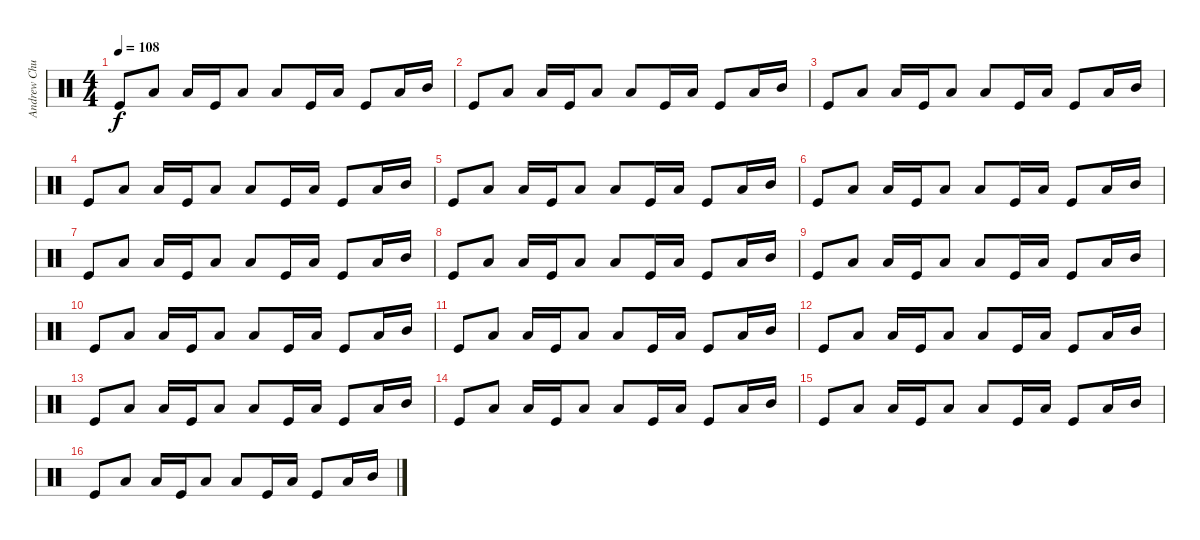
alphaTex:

\track ("Andrew Chudy - Bassdrum" "Andrew Chu") {instrument percussion}
\staff {score}
\articulation defaults
\ts (4 4)
\tempo 108
\clef neutral
\ks c "Kick (hit)".8{dy f} "Low Floor Tom (hit)".8 "Low Floor Tom (hit)".16 "Kick (hit)".16 "Low Floor Tom (hit)".8 "Low Floor Tom (hit)".8 "Kick (hit)".16 "Low Floor Tom (hit)".16 "Kick (hit)".8 "Low Floor Tom (hit)".16 "Mid Tom (hit)".16
|
"Kick (hit)".8 "Low Floor Tom (hit)".8 "Low Floor Tom (hit)".16 "Kick (hit)".16 "Low Floor Tom (hit)".8 "Low Floor Tom (hit)".8 "Kick (hit)".16 "Low Floor Tom (hit)".16 "Kick (hit)".8 "Low Floor Tom (hit)".16 "Mid Tom (hit)".16 |
"Kick (hit)".8 "Low Floor Tom (hit)".8 "Low Floor Tom (hit)".16 "Kick (hit)".16 "Low Floor Tom (hit)".8 "Low Floor Tom (hit)".8 "Kick (hit)".16 "Low Floor Tom (hit)".16 "Kick (hit)".8 "Low Floor Tom (hit)".16 "Mid Tom (hit)".16 |
"Kick (hit)".8 "Low Floor Tom (hit)".8 "Low Floor Tom (hit)".16 "Kick (hit)".16 "Low Floor Tom (hit)".8 "Low Floor Tom (hit)".8 "Kick (hit)".16 "Low Floor Tom (hit)".16 "Kick (hit)".8 "Low Floor Tom (hit)".16 "Mid Tom (hit)".16 |
"Kick (hit)".8 "Low Floor Tom (hit)".8 "Low Floor Tom (hit)".16 "Kick (hit)".16 "Low Floor Tom (hit)".8 "Low Floor Tom (hit)".8 "Kick (hit)".16 "Low Floor Tom (hit)".16 "Kick (hit)".8 "Low Floor Tom (hit)".16 "Mid Tom (hit)".16 |
"Kick (hit)".8 "Low Floor Tom (hit)".8 "Low Floor Tom (hit)".16 "Kick (hit)".16 "Low Floor Tom (hit)".8 "Low Floor Tom (hit)".8 "Kick (hit)".16 "Low Floor Tom (hit)".16 "Kick (hit)".8 "Low Floor Tom (hit)".16 "Mid Tom (hit)".16 |
"Kick (hit)".8 "Low Floor Tom (hit)".8 "Low Floor Tom (hit)".16 "Kick (hit)".16 "Low Floor Tom (hit)".8 "Low Floor Tom (hit)".8 "Kick (hit)".16 "Low Floor Tom (hit)".16 "Kick (hit)".8 "Low Floor Tom (hit)".16 "Mid Tom (hit)".16 |
"Kick (hit)".8 "Low Floor Tom (hit)".8 "Low Floor Tom (hit)".16 "Kick (hit)".16 "Low Floor Tom (hit)".8 "Low Floor Tom (hit)".8 "Kick (hit)".16 "Low Floor Tom (hit)".16 "Kick (hit)".8 "Low Floor Tom (hit)".16 "Mid Tom (hit)".16 |
"Kick (hit)".8 "Low Floor Tom (hit)".8 "Low Floor Tom (hit)".16 "Kick (hit)".16 "Low Floor Tom (hit)".8 "Low Floor Tom (hit)".8 "Kick (hit)".16 "Low Floor Tom (hit)".16 "Kick (hit)".8 "Low Floor Tom (hit)".16 "Mid Tom (hit)".16 |
"Kick (hit)".8 "Low Floor Tom (hit)".8 "Low Floor Tom (hit)".16 "Kick (hit)".16 "Low Floor Tom (hit)".8 "Low Floor Tom (hit)".8 "Kick (hit)".16 "Low Floor Tom (hit)".16 "Kick (hit)".8 "Low Floor Tom (hit)".16 "Mid Tom (hit)".16 |
"Kick (hit)".8 "Low Floor Tom (hit)".8 "Low Floor Tom (hit)".16 "Kick (hit)".16 "Low Floor Tom (hit)".8 "Low Floor Tom (hit)".8 "Kick (hit)".16 "Low Floor Tom (hit)".16 "Kick (hit)".8 "Low Floor Tom (hit)".16 "Mid Tom (hit)".16 |
"Kick (hit)".8 "Low Floor Tom (hit)".8 "Low Floor Tom (hit)".16 "Kick (hit)".16 "Low Floor Tom (hit)".8 "Low Floor Tom (hit)".8 "Kick (hit)".16 "Low Floor Tom (hit)".16 "Kick (hit)".8 "Low Floor Tom (hit)".16 "Mid Tom (hit)".16 |
"Kick (hit)".8 "Low Floor Tom (hit)".8 "Low Floor Tom (hit)".16 "Kick (hit)".16 "Low Floor Tom (hit)".8 "Low Floor Tom (hit)".8 "Kick (hit)".16 "Low Floor Tom (hit)".16 "Kick (hit)".8 "Low Floor Tom (hit)".16 "Mid Tom (hit)".16 |
"Kick (hit)".8 "Low Floor Tom (hit)".8 "Low Floor Tom (hit)".16 "Kick (hit)".16 "Low Floor Tom (hit)".8 "Low Floor Tom (hit)".8 "Kick (hit)".16 "Low Floor Tom (hit)".16 "Kick (hit)".8 "Low Floor Tom (hit)".16 "Mid Tom (hit)".16 |
"Kick (hit)".8 "Low Floor Tom (hit)".8 "Low Floor Tom (hit)".16 "Kick (hit)".16 "Low Floor Tom (hit)".8 "Low Floor Tom (hit)".8 "Kick (hit)".16 "Low Floor Tom (hit)".16 "Kick (hit)".8 "Low Floor Tom (hit)".16 "Mid Tom (hit)".16 |
"Kick (hit)".8 "Low Floor Tom (hit)".8 "Low Floor Tom (hit)".16 "Kick (hit)".16 "Low Floor Tom (hit)".8 "Low Floor Tom (hit)".8 "Kick (hit)".16 "Low Floor Tom (hit)".16 "Kick (hit)".8 "Low Floor Tom (hit)".16 "Mid Tom (hit)".16
